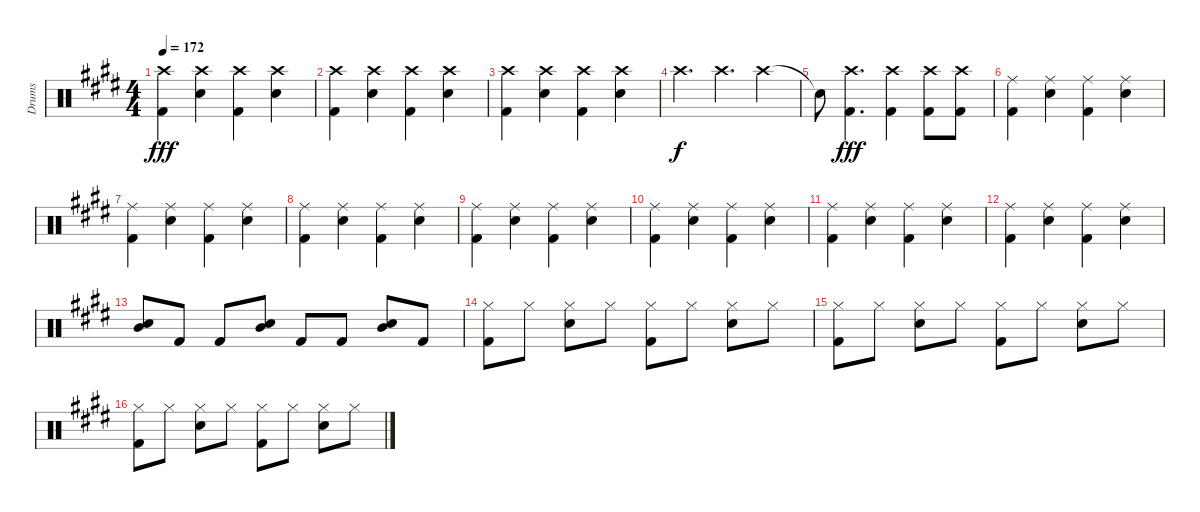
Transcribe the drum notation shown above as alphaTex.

\track ("Drums" "Drums") {instrument percussion}
\staff {score}
\articulation defaults
\ts (4 4)
\tempo 172
\clef neutral
\ks e
("Crash high (hit)" "Kick (hit) 2").4{dy fff} ("Crash high (hit)" "Electric Snare (hit)").4 ("Crash high (hit)" "Kick (hit) 2").4 ("Crash high (hit)" "Electric Snare (hit)").4 |
("Crash high (hit)" "Kick (hit) 2").4 ("Crash high (hit)" "Electric Snare (hit)").4 ("Crash high (hit)" "Kick (hit) 2").4 ("Crash high (hit)" "Electric Snare (hit)").4 |
("Crash high (hit)" "Kick (hit) 2").4 ("Crash high (hit)" "Electric Snare (hit)").4 ("Crash high (hit)" "Kick (hit) 2").4 ("Crash high (hit)" "Electric Snare (hit)").4 |
"Crash high (hit)".4{d dy f} "Crash high (hit)".4{d} "Crash high (hit)".4 |
"Snare (hit)"{t}.8 ("Crash high (hit)" "Kick (hit) 2").4{d dy fff} ("Crash high (hit)" "Kick (hit) 2").4 ("Crash high (hit)" "Kick (hit) 2").8 ("Crash high (hit)" "Kick (hit) 2").8 |
("Ride (middle)" "Kick (hit) 2").4 ("Ride (middle)" "Electric Snare (hit)").4 ("Ride (middle)" "Kick (hit) 2").4 ("Ride (middle)" "Electric Snare (hit)").4 |
("Ride (middle)" "Kick (hit) 2").4 ("Ride (middle)" "Electric Snare (hit)").4 ("Ride (middle)" "Kick (hit) 2").4 ("Ride (middle)" "Electric Snare (hit)").4 |
("Ride (middle)" "Kick (hit) 2").4 ("Ride (middle)" "Electric Snare (hit)").4 ("Ride (middle)" "Kick (hit) 2").4 ("Ride (middle)" "Electric Snare (hit)").4 |
("Ride (middle)" "Kick (hit) 2").4 ("Ride (middle)" "Electric Snare (hit)").4 ("Ride (middle)" "Kick (hit) 2").4 ("Ride (middle)" "Electric Snare (hit)").4 |
("Ride (middle)" "Kick (hit) 2").4 ("Ride (middle)" "Electric Snare (hit)").4 ("Ride (middle)" "Kick (hit) 2").4 ("Ride (middle)" "Electric Snare (hit)").4 |
("Ride (middle)" "Kick (hit) 2").4 ("Ride (middle)" "Electric Snare (hit)").4 ("Ride (middle)" "Kick (hit) 2").4 ("Ride (middle)" "Electric Snare (hit)").4 |
("Ride (middle)" "Kick (hit) 2").4 ("Ride (middle)" "Electric Snare (hit)").4 ("Ride (middle)" "Kick (hit) 2").4 ("Ride (middle)" "Electric Snare (hit)").4 |
("Electric Snare (hit)" "Mid Tom (hit)").8 "Kick (hit) 2".8 "Kick (hit) 2".8 ("Electric Snare (hit)" "Mid Tom (hit)").8 "Kick (hit) 2".8 "Kick (hit) 2".8 ("Electric Snare (hit)" "Mid Tom (hit)").8 "Kick (hit) 2".8 |
("Hi-Hat (closed)" "Kick (hit) 2").8 "Hi-Hat (closed)".8 ("Hi-Hat (closed)" "Electric Snare (hit)").8 "Hi-Hat (closed)".8 ("Hi-Hat (closed)" "Kick (hit) 2").8 "Hi-Hat (closed)".8 ("Hi-Hat (closed)" "Electric Snare (hit)").8 "Hi-Hat (closed)".8 |
("Hi-Hat (closed)" "Kick (hit) 2").8 "Hi-Hat (closed)".8 ("Hi-Hat (closed)" "Electric Snare (hit)").8 "Hi-Hat (closed)".8 ("Hi-Hat (closed)" "Kick (hit) 2").8 "Hi-Hat (closed)".8 ("Hi-Hat (closed)" "Electric Snare (hit)").8 "Hi-Hat (closed)".8 |
("Hi-Hat (closed)" "Kick (hit) 2").8 "Hi-Hat (closed)".8 ("Hi-Hat (closed)" "Electric Snare (hit)").8 "Hi-Hat (closed)".8 ("Hi-Hat (closed)" "Kick (hit) 2").8 "Hi-Hat (closed)".8 ("Hi-Hat (closed)" "Electric Snare (hit)").8 "Hi-Hat (closed)".8
